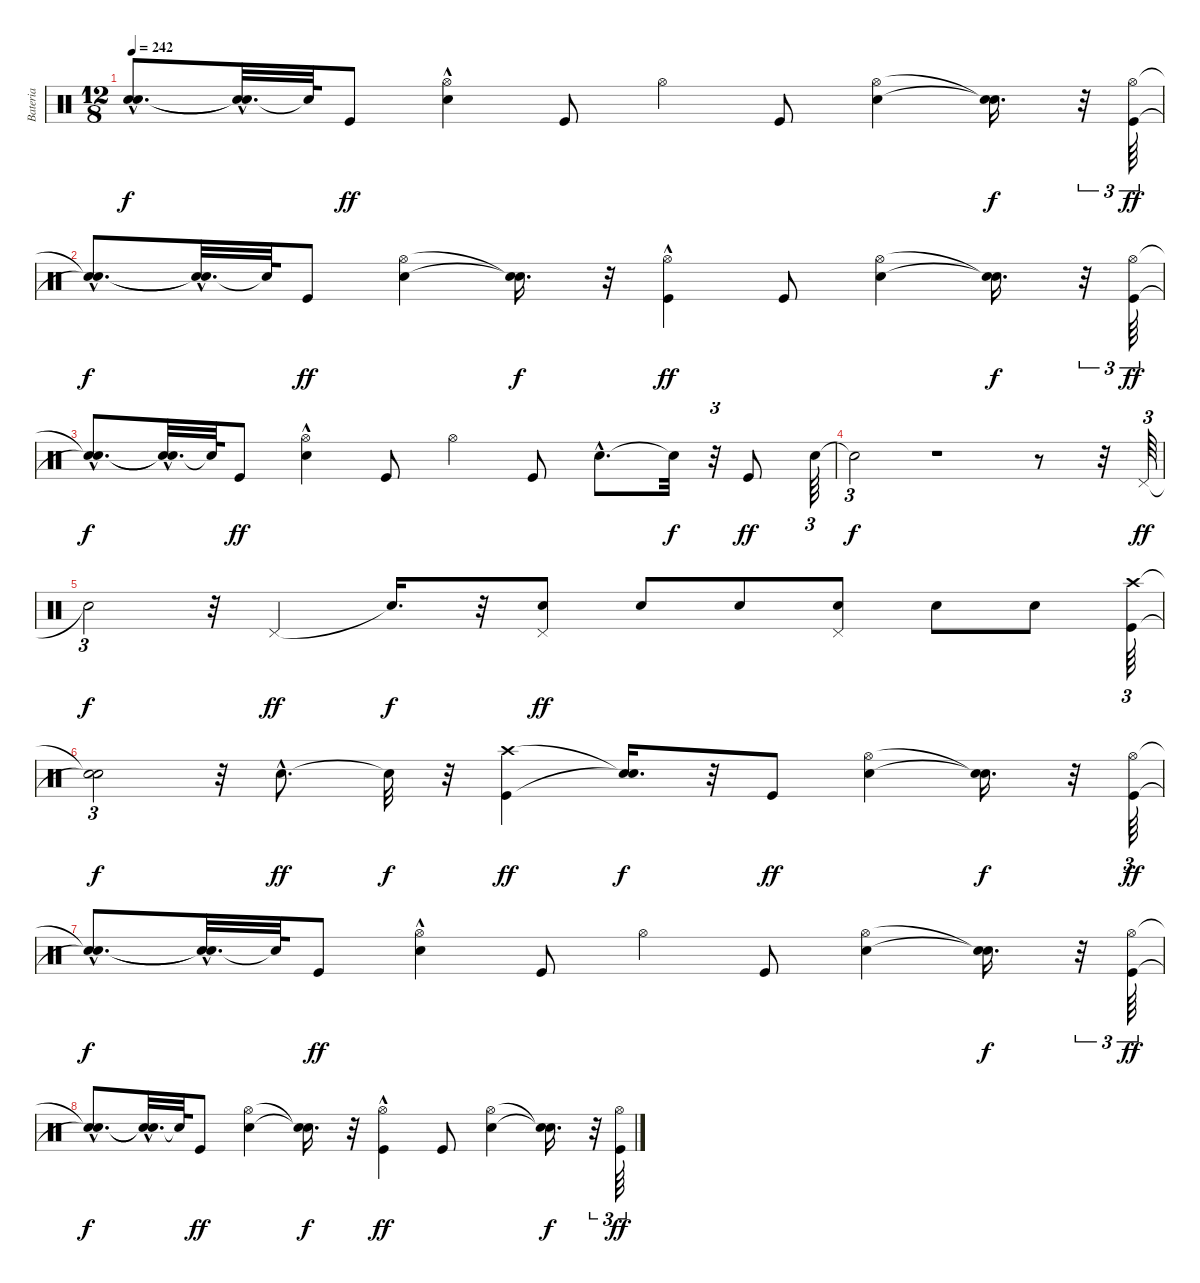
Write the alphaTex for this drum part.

\track ("Bateria" "Bateria") {instrument percussion}
\staff {score}
\articulation defaults
\ts (12 8)
\tempo 242
\clef neutral
\ks c
("Snare (hit)"{hac t} "Snare (hit)"{hac t}).8{d dy f} ("Snare (hit)"{t} "Snare (hit)"{hac t}).32{d} "Snare (hit)"{t}.64 "Kick (hit)".8{dy ff} ("Snare (hit) 2"{hac} "Hi-Hat (open)").4 "Kick (hit)".8 "Hi-Hat (open)".4 "Kick (hit)".8 ("Snare (hit) 2" "Hi-Hat (open)").4 ("Snare (hit)"{t} "Snare (hit)"{t}).16{d dy f} r.32{tu (3 2)} ("Kick (hit)" "Hi-Hat (open)").64{tu (3 2) dy ff} |
("Snare (hit)"{hac t} "Snare (hit)"{hac t}).8{d dy f} ("Snare (hit)"{t} "Snare (hit)"{hac t}).32{d} "Snare (hit)"{t}.64 "Kick (hit)".8{dy ff} ("Snare (hit) 2" "Hi-Hat (open)").4 ("Snare (hit)"{t} "Snare (hit)"{t}).16{d dy f} r.32 ("Kick (hit)"{hac} "Hi-Hat (open)").4{dy ff} "Kick (hit)".8 ("Snare (hit) 2" "Hi-Hat (open)").4 ("Snare (hit)"{t} "Snare (hit)"{t}).16{d dy f} r.32{tu (3 2)} ("Kick (hit)" "Hi-Hat (open)").64{tu (3 2) dy ff} |
("Snare (hit)"{hac t} "Snare (hit)"{hac t}).8{d dy f} ("Snare (hit)"{t} "Snare (hit)"{hac t}).32{d} "Snare (hit)"{t}.64 "Kick (hit)".8{dy ff} ("Snare (hit) 2"{hac} "Hi-Hat (open)").4 "Kick (hit)".8 "Hi-Hat (open)".4 "Kick (hit)".8 "Snare (hit) 2"{hac}.8{d} "Snare (hit)"{t}.32{dy f} r.32{tu (3 2)} "Kick (hit)".8{dy ff} "Snare (hit) 2".64{tu (3 2)} |
"Snare (hit)"{t}.2{tu (3 2) dy f} r.1 r.8 r.32 "Pedal Hi-Hat (hit)".64{tu (3 2) dy ff} |
"Snare (hit)"{t}.2{tu (3 2) dy f} r.32 "Pedal Hi-Hat (hit)".4{dy ff} "Snare (hit)"{t}.16{d dy f} r.32 ("Snare (hit) 2" "Pedal Hi-Hat (hit)").8{dy ff} "Snare (hit) 2".8 "Snare (hit) 2".8 ("Snare (hit) 2" "Pedal Hi-Hat (hit)").8 "Snare (hit) 2".8 "Snare (hit) 2".8 ("Kick (hit)" "Crash high (hit)").64{tu (3 2)} |
("Snare (hit)"{t} "Snare (hit)"{t}).2{tu (3 2) dy f} r.32 "Snare (hit) 2"{hac}.8{d dy ff} "Snare (hit)"{t}.32{dy f} r.32 ("Kick (hit)" "Crash high (hit)").4{dy ff} ("Snare (hit)"{t} "Snare (hit)"{t}).16{d dy f} r.32 "Kick (hit)".8{dy ff} ("Snare (hit) 2" "Hi-Hat (open)").4 ("Snare (hit)"{t} "Snare (hit)"{t}).16{d dy f} r.32 ("Kick (hit)" "Hi-Hat (open)").64{tu (3 2) dy ff} |
("Snare (hit)"{hac t} "Snare (hit)"{hac t}).8{d dy f} ("Snare (hit)"{t} "Snare (hit)"{hac t}).32{d} "Snare (hit)"{t}.64 "Kick (hit)".8{dy ff} ("Snare (hit) 2"{hac} "Hi-Hat (open)").4 "Kick (hit)".8 "Hi-Hat (open)".4 "Kick (hit)".8 ("Snare (hit) 2" "Hi-Hat (open)").4 ("Snare (hit)"{t} "Snare (hit)"{t}).16{d dy f} r.32{tu (3 2)} ("Kick (hit)" "Hi-Hat (open)").64{tu (3 2) dy ff} |
("Snare (hit)"{hac t} "Snare (hit)"{hac t}).8{d dy f} ("Snare (hit)"{t} "Snare (hit)"{hac t}).32{d} "Snare (hit)"{t}.64 "Kick (hit)".8{dy ff} ("Snare (hit) 2" "Hi-Hat (open)").4 ("Snare (hit)"{t} "Snare (hit)"{t}).16{d dy f} r.32 ("Kick (hit)"{hac} "Hi-Hat (open)").4{dy ff} "Kick (hit)".8 ("Snare (hit) 2" "Hi-Hat (open)").4 ("Snare (hit)"{t} "Snare (hit)"{t}).16{d dy f} r.32{tu (3 2)} ("Kick (hit)" "Hi-Hat (open)").64{tu (3 2) dy ff}
